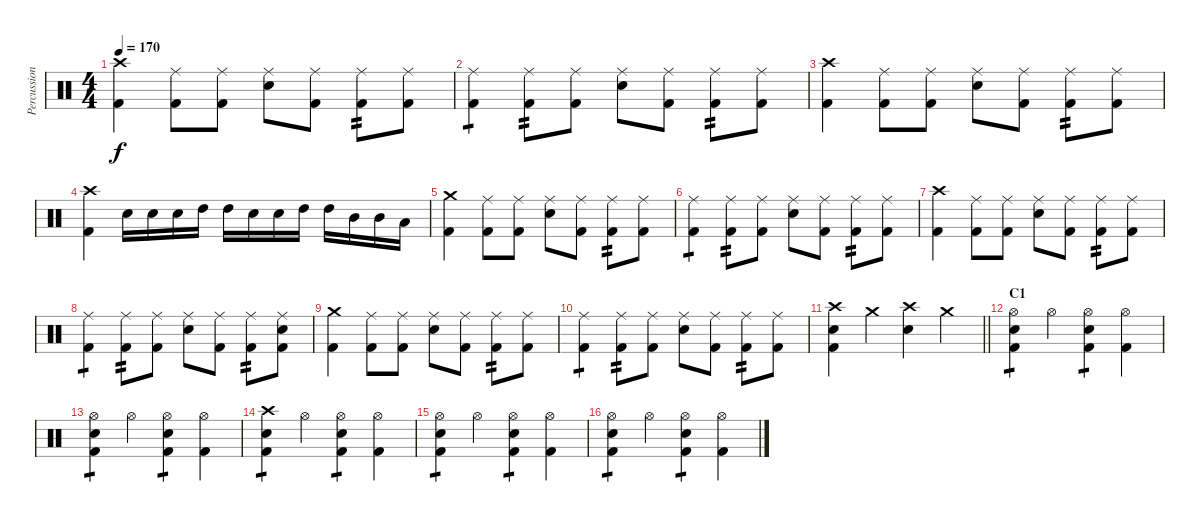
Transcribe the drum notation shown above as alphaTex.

\track ("Percussion" "Percussion") {instrument percussion}
\staff {score}
\articulation defaults
\ts (4 4)
\tempo 170
\clef neutral
\ks c
("Crash high (hit)" "Kick (hit) 2").4{dy f} ("Ride (middle)" "Kick (hit) 2").8 ("Ride (middle)" "Kick (hit) 2").8 ("Ride (middle)" "Electric Snare (hit)").8 ("Ride (middle)" "Kick (hit) 2").8 ("Ride (middle)" "Kick (hit) 2").8{tp 2} ("Ride (middle)" "Kick (hit) 2").8 |
("Ride (middle)" "Kick (hit) 2").4{tp 1} ("Ride (middle)" "Kick (hit) 2").8{tp 2} ("Ride (middle)" "Kick (hit) 2").8 ("Ride (middle)" "Electric Snare (hit)").8 ("Ride (middle)" "Kick (hit) 2").8 ("Ride (middle)" "Kick (hit) 2").8{tp 2} ("Ride (middle)" "Kick (hit) 2").8 |
("Crash high (hit)" "Kick (hit) 2").4 ("Ride (middle)" "Kick (hit) 2").8 ("Ride (middle)" "Kick (hit) 2").8 ("Ride (middle)" "Electric Snare (hit)").8 ("Ride (middle)" "Kick (hit) 2").8 ("Ride (middle)" "Kick (hit) 2").8{tp 2} ("Ride (middle)" "Kick (hit) 2").8 |
("Crash high (hit)" "Kick (hit) 2").4 "Electric Snare (hit)".16 "Electric Snare (hit)".16 "Electric Snare (hit)".16 "High Tom (hit)".16 "High Tom (hit)".16 "Electric Snare (hit)".16 "Electric Snare (hit)".16 "High Tom (hit)".16 "High Tom (hit)".16 "Mid Tom (hit)".16 "Mid Tom (hit)".16 "Low Tom (hit)".16 |
("Crash medium (hit)" "Kick (hit) 2").4 ("Ride (middle)" "Kick (hit) 2").8 ("Ride (middle)" "Kick (hit) 2").8 ("Ride (middle)" "Electric Snare (hit)").8 ("Ride (middle)" "Kick (hit) 2").8 ("Ride (middle)" "Kick (hit) 2").8{tp 2} ("Ride (middle)" "Kick (hit) 2").8 |
("Ride (middle)" "Kick (hit) 2").4{tp 1} ("Ride (middle)" "Kick (hit) 2").8{tp 2} ("Ride (middle)" "Kick (hit) 2").8 ("Ride (middle)" "Electric Snare (hit)").8 ("Ride (middle)" "Kick (hit) 2").8 ("Ride (middle)" "Kick (hit) 2").8{tp 2} ("Ride (middle)" "Kick (hit) 2").8 |
("Crash high (hit)" "Kick (hit) 2").4 ("Ride (middle)" "Kick (hit) 2").8 ("Ride (middle)" "Kick (hit) 2").8 ("Ride (middle)" "Electric Snare (hit)").8 ("Ride (middle)" "Kick (hit) 2").8 ("Ride (middle)" "Kick (hit) 2").8{tp 2} ("Ride (middle)" "Kick (hit) 2").8 |
("Ride (middle)" "Kick (hit) 2").4{tp 1} ("Ride (middle)" "Kick (hit) 2").8{tp 2} ("Ride (middle)" "Kick (hit) 2").8 ("Ride (middle)" "Electric Snare (hit)").8 ("Ride (middle)" "Kick (hit) 2").8 ("Ride (middle)" "Kick (hit) 2").8{tp 2} ("Ride (middle)" "Electric Snare (hit)" "Kick (hit) 2").8 |
("Crash medium (hit)" "Kick (hit) 2").4 ("Ride (middle)" "Kick (hit) 2").8 ("Ride (middle)" "Kick (hit) 2").8 ("Ride (middle)" "Electric Snare (hit)").8 ("Ride (middle)" "Kick (hit) 2").8 ("Ride (middle)" "Kick (hit) 2").8{tp 2} ("Ride (middle)" "Kick (hit) 2").8 |
("Ride (middle)" "Kick (hit) 2").4{tp 1} ("Ride (middle)" "Kick (hit) 2").8{tp 2} ("Ride (middle)" "Kick (hit) 2").8 ("Ride (middle)" "Electric Snare (hit)").8 ("Ride (middle)" "Kick (hit) 2").8 ("Ride (middle)" "Kick (hit) 2").8{tp 2} ("Ride (middle)" "Kick (hit) 2").8 |
\barLineRight lightlight
("Crash high (hit)" "Electric Snare (hit)" "Kick (hit) 2").4 "Crash medium (hit)".4 ("Crash high (hit)" "Electric Snare (hit)").4 "Crash medium (hit)".4 |
\section ("" "C1")
("Hi-Hat (open)" "Electric Snare (hit)" "Kick (hit) 2").4{tp 1} "Hi-Hat (open)".4 ("Hi-Hat (open)" "Electric Snare (hit)" "Kick (hit) 2").4{tp 1} ("Hi-Hat (open)" "Kick (hit) 2").4 |
("Hi-Hat (open)" "Electric Snare (hit)" "Kick (hit) 2").4{tp 1} "Hi-Hat (open)".4 ("Hi-Hat (open)" "Electric Snare (hit)" "Kick (hit) 2").4{tp 1} ("Hi-Hat (open)" "Kick (hit) 2").4 |
("Crash high (hit)" "Electric Snare (hit)" "Kick (hit) 2").4{tp 1} "Hi-Hat (open)".4 ("Hi-Hat (open)" "Electric Snare (hit)" "Kick (hit) 2").4{tp 1} ("Hi-Hat (open)" "Kick (hit) 2").4 |
("Hi-Hat (open)" "Electric Snare (hit)" "Kick (hit) 2").4{tp 1} "Hi-Hat (open)".4 ("Hi-Hat (open)" "Electric Snare (hit)" "Kick (hit) 2").4{tp 1} ("Hi-Hat (open)" "Kick (hit) 2").4 |
("Hi-Hat (open)" "Electric Snare (hit)" "Kick (hit) 2").4{tp 1} "Hi-Hat (open)".4 ("Hi-Hat (open)" "Electric Snare (hit)" "Kick (hit) 2").4{tp 1} ("Hi-Hat (open)" "Kick (hit) 2").4
